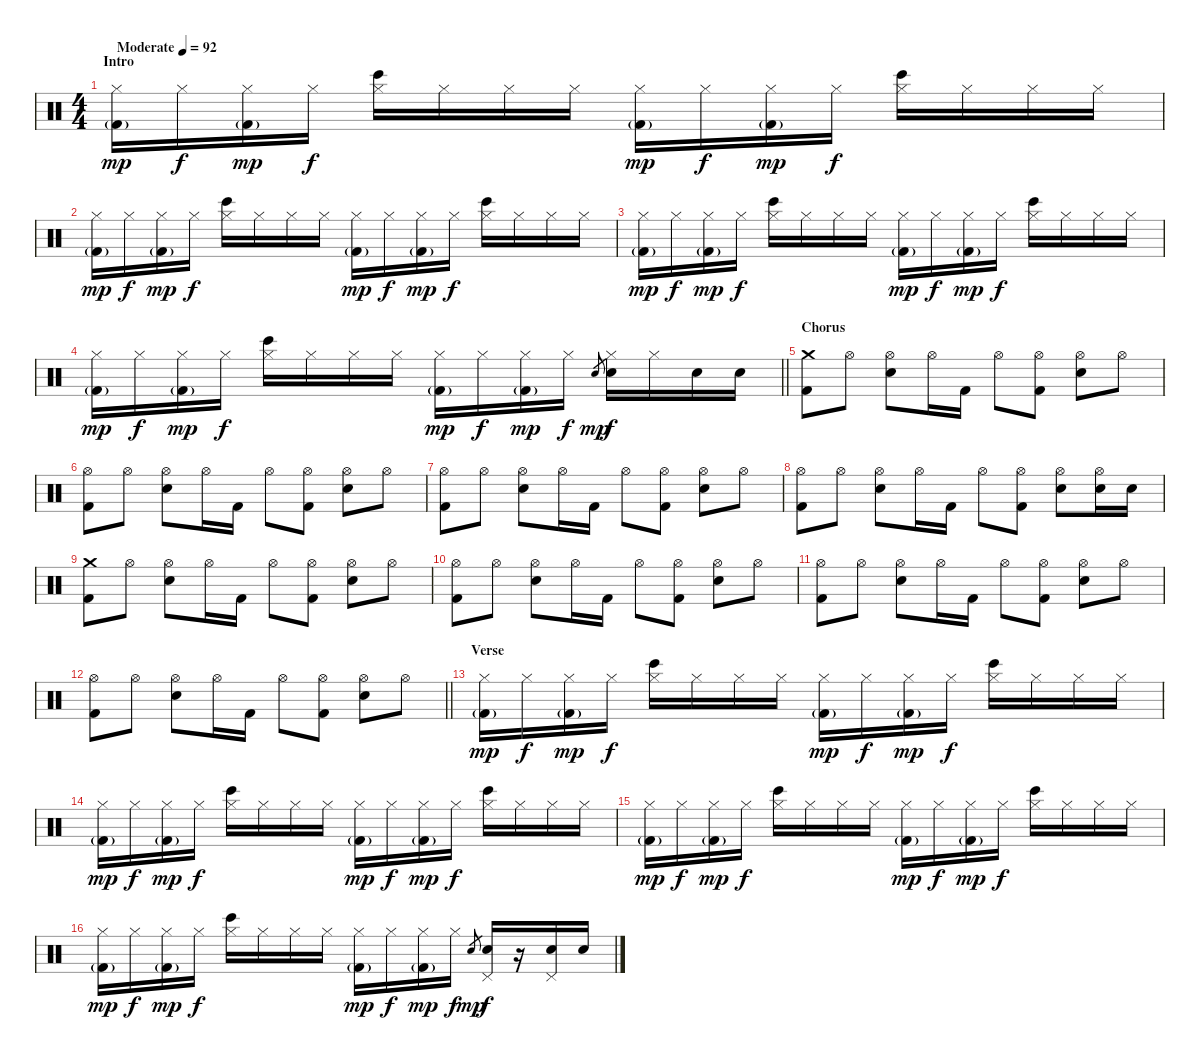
\track "" {instrument percussion}
\staff {score}
\articulation defaults
\ts (4 4)
\section ("" "Intro")
\tempo (92 "Moderate")
\clef neutral
\ks c
("Hi-Hat (closed)" "Kick (hit) 2"{g}).16{dy mp} "Hi-Hat (closed)".16{dy f} ("Hi-Hat (closed)" "Kick (hit) 2"{g}).16{dy mp} "Hi-Hat (closed)".16{dy f} ("Hi-Hat (closed)" "Bongo High (hit)").16 "Hi-Hat (closed)".16 "Hi-Hat (closed)".16 "Hi-Hat (closed)".16 ("Hi-Hat (closed)" "Kick (hit) 2"{g}).16{dy mp} "Hi-Hat (closed)".16{dy f} ("Hi-Hat (closed)" "Kick (hit) 2"{g}).16{dy mp} "Hi-Hat (closed)".16{dy f} ("Hi-Hat (closed)" "Bongo High (hit)").16 "Hi-Hat (closed)".16 "Hi-Hat (closed)".16 "Hi-Hat (closed)".16 |
("Hi-Hat (closed)" "Kick (hit) 2"{g}).16{dy mp} "Hi-Hat (closed)".16{dy f} ("Hi-Hat (closed)" "Kick (hit) 2"{g}).16{dy mp} "Hi-Hat (closed)".16{dy f} ("Hi-Hat (closed)" "Bongo High (hit)").16 "Hi-Hat (closed)".16 "Hi-Hat (closed)".16 "Hi-Hat (closed)".16 ("Hi-Hat (closed)" "Kick (hit) 2"{g}).16{dy mp} "Hi-Hat (closed)".16{dy f} ("Hi-Hat (closed)" "Kick (hit) 2"{g}).16{dy mp} "Hi-Hat (closed)".16{dy f} ("Hi-Hat (closed)" "Bongo High (hit)").16 "Hi-Hat (closed)".16 "Hi-Hat (closed)".16 "Hi-Hat (closed)".16 |
("Hi-Hat (closed)" "Kick (hit) 2"{g}).16{dy mp} "Hi-Hat (closed)".16{dy f} ("Hi-Hat (closed)" "Kick (hit) 2"{g}).16{dy mp} "Hi-Hat (closed)".16{dy f} ("Hi-Hat (closed)" "Bongo High (hit)").16 "Hi-Hat (closed)".16 "Hi-Hat (closed)".16 "Hi-Hat (closed)".16 ("Hi-Hat (closed)" "Kick (hit) 2"{g}).16{dy mp} "Hi-Hat (closed)".16{dy f} ("Hi-Hat (closed)" "Kick (hit) 2"{g}).16{dy mp} "Hi-Hat (closed)".16{dy f} ("Hi-Hat (closed)" "Bongo High (hit)").16 "Hi-Hat (closed)".16 "Hi-Hat (closed)".16 "Hi-Hat (closed)".16 |
\barLineRight lightlight
("Hi-Hat (closed)" "Kick (hit) 2"{g}).16{dy mp} "Hi-Hat (closed)".16{dy f} ("Hi-Hat (closed)" "Kick (hit) 2"{g}).16{dy mp} "Hi-Hat (closed)".16{dy f} ("Hi-Hat (closed)" "Bongo High (hit)").16 "Hi-Hat (closed)".16 "Hi-Hat (closed)".16 "Hi-Hat (closed)".16 ("Hi-Hat (closed)" "Kick (hit) 2"{g}).16{dy mp} "Hi-Hat (closed)".16{dy f} ("Hi-Hat (closed)" "Kick (hit) 2"{g}).16{dy mp} "Hi-Hat (closed)".16{dy f} "Electric Snare (hit)".8{gr dy mp} ("Hi-Hat (closed)" "Electric Snare (hit)").16{dy f} "Hi-Hat (closed)".16 "Electric Snare (hit)".16 "Electric Snare (hit)".16 |
\section ("" "Chorus")
("Crash medium (hit)" "Kick (hit) 2").8 "Hi-Hat (open)".8 ("Hi-Hat (open)" "Electric Snare (hit)").8 "Hi-Hat (open)".16 "Kick (hit) 2".16 "Hi-Hat (open)".8 ("Hi-Hat (open)" "Kick (hit) 2").8 ("Hi-Hat (open)" "Electric Snare (hit)").8 "Hi-Hat (open)".8 |
("Hi-Hat (open)" "Kick (hit) 2").8 "Hi-Hat (open)".8 ("Hi-Hat (open)" "Electric Snare (hit)").8 "Hi-Hat (open)".16 "Kick (hit) 2".16 "Hi-Hat (open)".8 ("Hi-Hat (open)" "Kick (hit) 2").8 ("Hi-Hat (open)" "Electric Snare (hit)").8 "Hi-Hat (open)".8 |
("Hi-Hat (open)" "Kick (hit) 2").8 "Hi-Hat (open)".8 ("Hi-Hat (open)" "Electric Snare (hit)").8 "Hi-Hat (open)".16 "Kick (hit) 2".16 "Hi-Hat (open)".8 ("Hi-Hat (open)" "Kick (hit) 2").8 ("Hi-Hat (open)" "Electric Snare (hit)").8 "Hi-Hat (open)".8 |
("Hi-Hat (open)" "Kick (hit) 2").8 "Hi-Hat (open)".8 ("Hi-Hat (open)" "Electric Snare (hit)").8 "Hi-Hat (open)".16 "Kick (hit) 2".16 "Hi-Hat (open)".8 ("Hi-Hat (open)" "Kick (hit) 2").8 ("Hi-Hat (open)" "Electric Snare (hit)").8 ("Hi-Hat (open)" "Electric Snare (hit)").16 "Electric Snare (hit)".16 |
("Crash medium (hit)" "Kick (hit) 2").8 "Hi-Hat (open)".8 ("Hi-Hat (open)" "Electric Snare (hit)").8 "Hi-Hat (open)".16 "Kick (hit) 2".16 "Hi-Hat (open)".8 ("Hi-Hat (open)" "Kick (hit) 2").8 ("Hi-Hat (open)" "Electric Snare (hit)").8 "Hi-Hat (open)".8 |
("Hi-Hat (open)" "Kick (hit) 2").8 "Hi-Hat (open)".8 ("Hi-Hat (open)" "Electric Snare (hit)").8 "Hi-Hat (open)".16 "Kick (hit) 2".16 "Hi-Hat (open)".8 ("Hi-Hat (open)" "Kick (hit) 2").8 ("Hi-Hat (open)" "Electric Snare (hit)").8 "Hi-Hat (open)".8 |
("Hi-Hat (open)" "Kick (hit) 2").8 "Hi-Hat (open)".8 ("Hi-Hat (open)" "Electric Snare (hit)").8 "Hi-Hat (open)".16 "Kick (hit) 2".16 "Hi-Hat (open)".8 ("Hi-Hat (open)" "Kick (hit) 2").8 ("Hi-Hat (open)" "Electric Snare (hit)").8 "Hi-Hat (open)".8 |
\barLineRight lightlight
("Hi-Hat (open)" "Kick (hit) 2").8 "Hi-Hat (open)".8 ("Hi-Hat (open)" "Electric Snare (hit)").8 "Hi-Hat (open)".16 "Kick (hit) 2".16 "Hi-Hat (open)".8 ("Hi-Hat (open)" "Kick (hit) 2").8 ("Hi-Hat (open)" "Electric Snare (hit)").8 "Hi-Hat (open)".8 |
\section ("" "Verse")
("Hi-Hat (closed)" "Kick (hit) 2"{g}).16{dy mp} "Hi-Hat (closed)".16{dy f} ("Hi-Hat (closed)" "Kick (hit) 2"{g}).16{dy mp} "Hi-Hat (closed)".16{dy f} ("Hi-Hat (closed)" "Bongo High (hit)").16 "Hi-Hat (closed)".16 "Hi-Hat (closed)".16 "Hi-Hat (closed)".16 ("Hi-Hat (closed)" "Kick (hit) 2"{g}).16{dy mp} "Hi-Hat (closed)".16{dy f} ("Hi-Hat (closed)" "Kick (hit) 2"{g}).16{dy mp} "Hi-Hat (closed)".16{dy f} ("Hi-Hat (closed)" "Bongo High (hit)").16 "Hi-Hat (closed)".16 "Hi-Hat (closed)".16 "Hi-Hat (closed)".16 |
("Hi-Hat (closed)" "Kick (hit) 2"{g}).16{dy mp} "Hi-Hat (closed)".16{dy f} ("Hi-Hat (closed)" "Kick (hit) 2"{g}).16{dy mp} "Hi-Hat (closed)".16{dy f} ("Hi-Hat (closed)" "Bongo High (hit)").16 "Hi-Hat (closed)".16 "Hi-Hat (closed)".16 "Hi-Hat (closed)".16 ("Hi-Hat (closed)" "Kick (hit) 2"{g}).16{dy mp} "Hi-Hat (closed)".16{dy f} ("Hi-Hat (closed)" "Kick (hit) 2"{g}).16{dy mp} "Hi-Hat (closed)".16{dy f} ("Hi-Hat (closed)" "Bongo High (hit)").16 "Hi-Hat (closed)".16 "Hi-Hat (closed)".16 "Hi-Hat (closed)".16 |
("Hi-Hat (closed)" "Kick (hit) 2"{g}).16{dy mp} "Hi-Hat (closed)".16{dy f} ("Hi-Hat (closed)" "Kick (hit) 2"{g}).16{dy mp} "Hi-Hat (closed)".16{dy f} ("Hi-Hat (closed)" "Bongo High (hit)").16 "Hi-Hat (closed)".16 "Hi-Hat (closed)".16 "Hi-Hat (closed)".16 ("Hi-Hat (closed)" "Kick (hit) 2"{g}).16{dy mp} "Hi-Hat (closed)".16{dy f} ("Hi-Hat (closed)" "Kick (hit) 2"{g}).16{dy mp} "Hi-Hat (closed)".16{dy f} ("Hi-Hat (closed)" "Bongo High (hit)").16 "Hi-Hat (closed)".16 "Hi-Hat (closed)".16 "Hi-Hat (closed)".16 |
("Hi-Hat (closed)" "Kick (hit) 2"{g}).16{dy mp} "Hi-Hat (closed)".16{dy f} ("Hi-Hat (closed)" "Kick (hit) 2"{g}).16{dy mp} "Hi-Hat (closed)".16{dy f} ("Hi-Hat (closed)" "Bongo High (hit)").16 "Hi-Hat (closed)".16 "Hi-Hat (closed)".16 "Hi-Hat (closed)".16 ("Hi-Hat (closed)" "Kick (hit) 2"{g}).16{dy mp} "Hi-Hat (closed)".16{dy f} ("Hi-Hat (closed)" "Kick (hit) 2"{g}).16{dy mp} "Hi-Hat (closed)".16{dy f} "Electric Snare (hit)".8{gr dy mp} ("Pedal Hi-Hat (hit)" "Electric Snare (hit)").16{dy f} r.16 ("Pedal Hi-Hat (hit)" "Electric Snare (hit)").16 "Electric Snare (hit)".16
